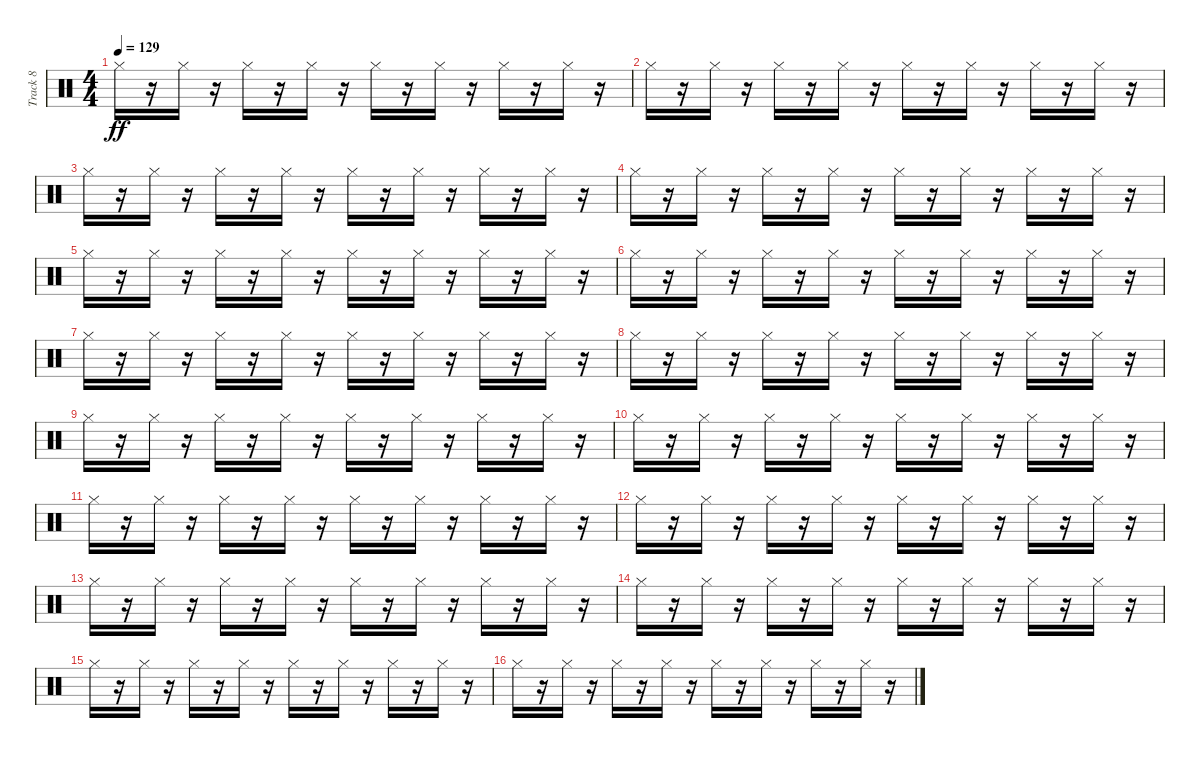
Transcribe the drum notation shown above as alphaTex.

\track ("Track 8" "Track 8") {instrument percussion}
\staff {score}
\articulation defaults
\ts (4 4)
\tempo 129
\clef neutral
\ks c "Hi-Hat (closed)".16{dy ff}
r.16 "Hi-Hat (closed)".16 r.16 "Hi-Hat (closed)".16 r.16 "Hi-Hat (closed)".16 r.16 "Hi-Hat (closed)".16 r.16 "Hi-Hat (closed)".16 r.16 "Hi-Hat (closed)".16 r.16 "Hi-Hat (closed)".16 r.16 |
"Hi-Hat (closed)".16 r.16 "Hi-Hat (closed)".16 r.16 "Hi-Hat (closed)".16 r.16 "Hi-Hat (closed)".16 r.16 "Hi-Hat (closed)".16 r.16 "Hi-Hat (closed)".16 r.16 "Hi-Hat (closed)".16 r.16 "Hi-Hat (closed)".16 r.16 |
"Hi-Hat (closed)".16 r.16 "Hi-Hat (closed)".16 r.16 "Hi-Hat (closed)".16 r.16 "Hi-Hat (closed)".16 r.16 "Hi-Hat (closed)".16 r.16 "Hi-Hat (closed)".16 r.16 "Hi-Hat (closed)".16 r.16 "Hi-Hat (closed)".16 r.16 |
"Hi-Hat (closed)".16 r.16 "Hi-Hat (closed)".16 r.16 "Hi-Hat (closed)".16 r.16 "Hi-Hat (closed)".16 r.16 "Hi-Hat (closed)".16 r.16 "Hi-Hat (closed)".16 r.16 "Hi-Hat (closed)".16 r.16 "Hi-Hat (closed)".16 r.16 |
"Hi-Hat (closed)".16 r.16 "Hi-Hat (closed)".16 r.16 "Hi-Hat (closed)".16 r.16 "Hi-Hat (closed)".16 r.16 "Hi-Hat (closed)".16 r.16 "Hi-Hat (closed)".16 r.16 "Hi-Hat (closed)".16 r.16 "Hi-Hat (closed)".16 r.16 |
"Hi-Hat (closed)".16 r.16 "Hi-Hat (closed)".16 r.16 "Hi-Hat (closed)".16 r.16 "Hi-Hat (closed)".16 r.16 "Hi-Hat (closed)".16 r.16 "Hi-Hat (closed)".16 r.16 "Hi-Hat (closed)".16 r.16 "Hi-Hat (closed)".16 r.16 |
"Hi-Hat (closed)".16 r.16 "Hi-Hat (closed)".16 r.16 "Hi-Hat (closed)".16 r.16 "Hi-Hat (closed)".16 r.16 "Hi-Hat (closed)".16 r.16 "Hi-Hat (closed)".16 r.16 "Hi-Hat (closed)".16 r.16 "Hi-Hat (closed)".16 r.16 |
"Hi-Hat (closed)".16 r.16 "Hi-Hat (closed)".16 r.16 "Hi-Hat (closed)".16 r.16 "Hi-Hat (closed)".16 r.16 "Hi-Hat (closed)".16 r.16 "Hi-Hat (closed)".16 r.16 "Hi-Hat (closed)".16 r.16 "Hi-Hat (closed)".16 r.16 |
"Hi-Hat (closed)".16 r.16 "Hi-Hat (closed)".16 r.16 "Hi-Hat (closed)".16 r.16 "Hi-Hat (closed)".16 r.16 "Hi-Hat (closed)".16 r.16 "Hi-Hat (closed)".16 r.16 "Hi-Hat (closed)".16 r.16 "Hi-Hat (closed)".16 r.16 |
"Hi-Hat (closed)".16 r.16 "Hi-Hat (closed)".16 r.16 "Hi-Hat (closed)".16 r.16 "Hi-Hat (closed)".16 r.16 "Hi-Hat (closed)".16 r.16 "Hi-Hat (closed)".16 r.16 "Hi-Hat (closed)".16 r.16 "Hi-Hat (closed)".16 r.16 |
"Hi-Hat (closed)".16 r.16 "Hi-Hat (closed)".16 r.16 "Hi-Hat (closed)".16 r.16 "Hi-Hat (closed)".16 r.16 "Hi-Hat (closed)".16 r.16 "Hi-Hat (closed)".16 r.16 "Hi-Hat (closed)".16 r.16 "Hi-Hat (closed)".16 r.16 |
"Hi-Hat (closed)".16 r.16 "Hi-Hat (closed)".16 r.16 "Hi-Hat (closed)".16 r.16 "Hi-Hat (closed)".16 r.16 "Hi-Hat (closed)".16 r.16 "Hi-Hat (closed)".16 r.16 "Hi-Hat (closed)".16 r.16 "Hi-Hat (closed)".16 r.16 |
"Hi-Hat (closed)".16 r.16 "Hi-Hat (closed)".16 r.16 "Hi-Hat (closed)".16 r.16 "Hi-Hat (closed)".16 r.16 "Hi-Hat (closed)".16 r.16 "Hi-Hat (closed)".16 r.16 "Hi-Hat (closed)".16 r.16 "Hi-Hat (closed)".16 r.16 |
"Hi-Hat (closed)".16 r.16 "Hi-Hat (closed)".16 r.16 "Hi-Hat (closed)".16 r.16 "Hi-Hat (closed)".16 r.16 "Hi-Hat (closed)".16 r.16 "Hi-Hat (closed)".16 r.16 "Hi-Hat (closed)".16 r.16 "Hi-Hat (closed)".16 r.16 |
"Hi-Hat (closed)".16 r.16 "Hi-Hat (closed)".16 r.16 "Hi-Hat (closed)".16 r.16 "Hi-Hat (closed)".16 r.16 "Hi-Hat (closed)".16 r.16 "Hi-Hat (closed)".16 r.16 "Hi-Hat (closed)".16 r.16 "Hi-Hat (closed)".16 r.16 |
"Hi-Hat (closed)".16 r.16 "Hi-Hat (closed)".16 r.16 "Hi-Hat (closed)".16 r.16 "Hi-Hat (closed)".16 r.16 "Hi-Hat (closed)".16 r.16 "Hi-Hat (closed)".16 r.16 "Hi-Hat (closed)".16 r.16 "Hi-Hat (closed)".16 r.16
